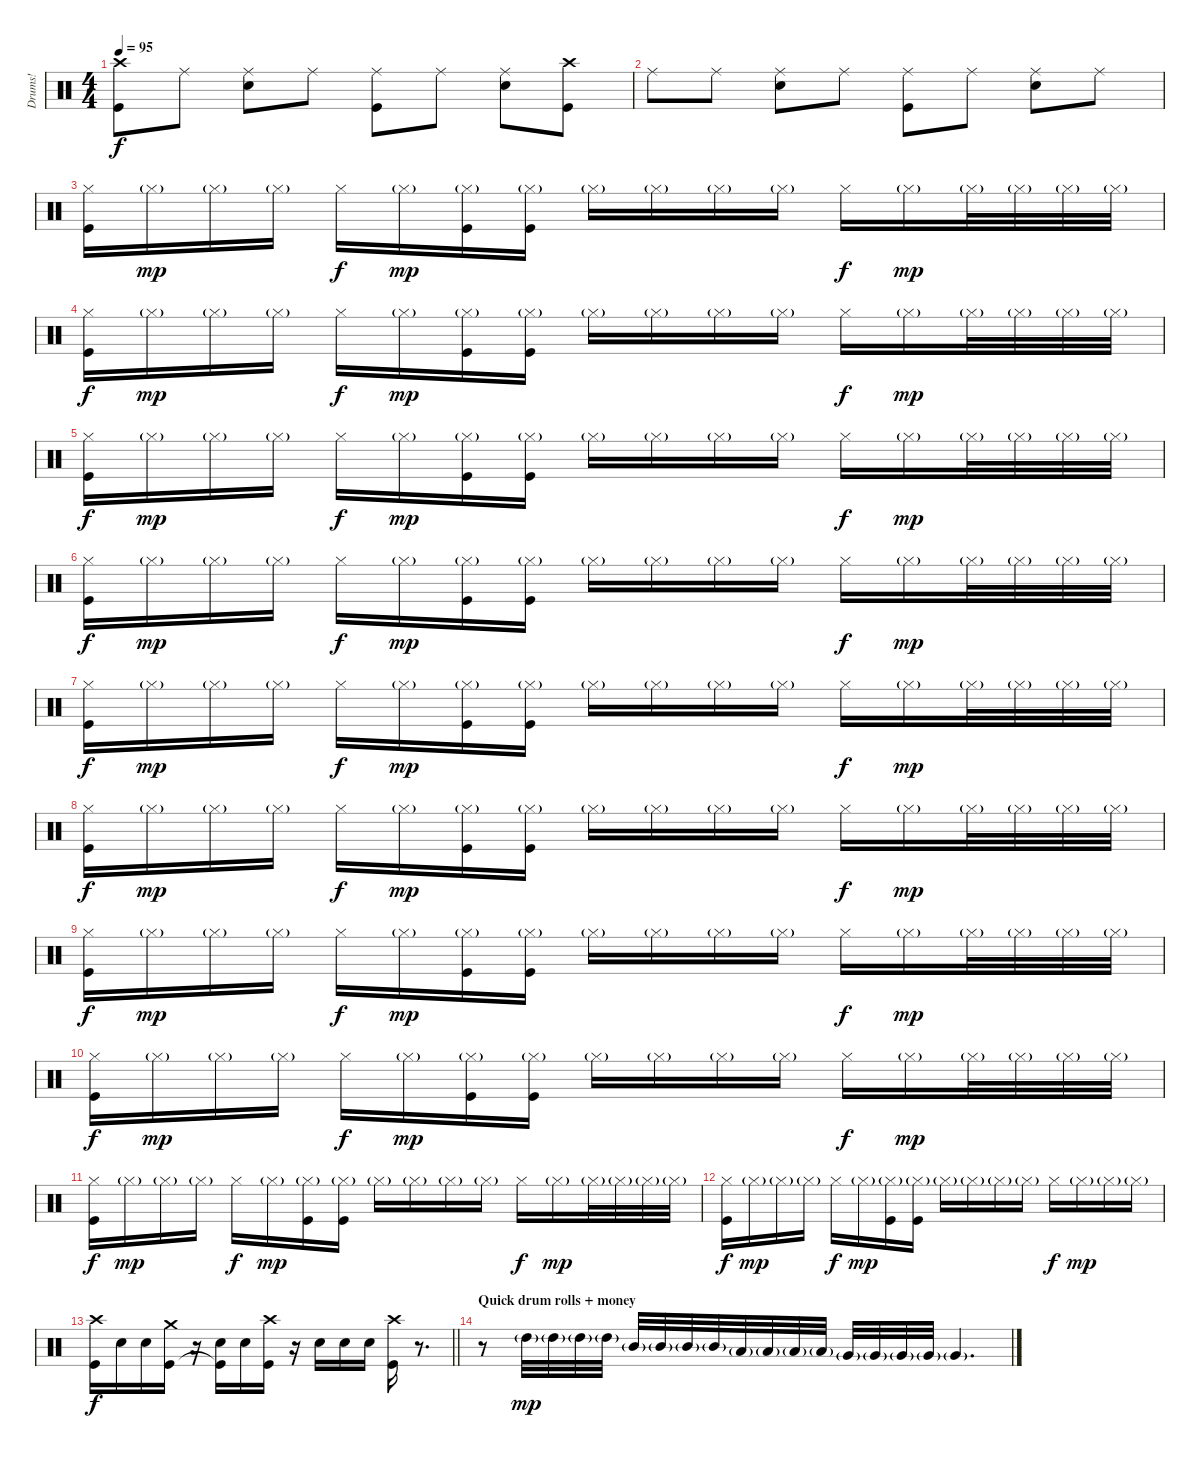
\track ("Drums!" "Drums!") {instrument percussion}
\staff {score}
\articulation defaults
\ts (4 4)
\tempo 95
\clef neutral
\ks c
("Crash high (hit)" "Kick (hit)").8{dy f} "Ride (middle)".8 ("Ride (middle)" "Electric Snare (hit)").8 "Ride (middle)".8 ("Ride (middle)" "Kick (hit)").8 "Ride (middle)".8 ("Ride (middle)" "Electric Snare (hit)").8 ("Crash high (hit)" "Kick (hit)").8 |
"Ride (middle)".8 "Ride (middle)".8 ("Ride (middle)" "Electric Snare (hit)").8 "Ride (middle)".8 ("Ride (middle)" "Kick (hit)").8 "Ride (middle)".8 ("Ride (middle)" "Electric Snare (hit)").8 "Ride (middle)".8 |
("Hi-Hat (closed)" "Kick (hit)").16 "Hi-Hat (closed)"{g}.16{dy mp} "Hi-Hat (closed)"{g}.16 "Hi-Hat (closed)"{g}.16 "Hi-Hat (closed)".16{dy f} "Hi-Hat (closed)"{g}.16{dy mp} ("Hi-Hat (closed)"{g} "Kick (hit)").16 ("Hi-Hat (closed)"{g} "Kick (hit)").16 "Hi-Hat (closed)"{g}.16 "Hi-Hat (closed)"{g}.16 "Hi-Hat (closed)"{g}.16 "Hi-Hat (closed)"{g}.16 "Hi-Hat (closed)".16{dy f} "Hi-Hat (closed)"{g}.16{dy mp} "Hi-Hat (closed)"{g}.32 "Hi-Hat (closed)"{g}.32 "Hi-Hat (closed)"{g}.32 "Hi-Hat (closed)"{g}.32 |
("Hi-Hat (closed)" "Kick (hit)").16{dy f} "Hi-Hat (closed)"{g}.16{dy mp} "Hi-Hat (closed)"{g}.16 "Hi-Hat (closed)"{g}.16 "Hi-Hat (closed)".16{dy f} "Hi-Hat (closed)"{g}.16{dy mp} ("Hi-Hat (closed)"{g} "Kick (hit)").16 ("Hi-Hat (closed)"{g} "Kick (hit)").16 "Hi-Hat (closed)"{g}.16 "Hi-Hat (closed)"{g}.16 "Hi-Hat (closed)"{g}.16 "Hi-Hat (closed)"{g}.16 "Hi-Hat (closed)".16{dy f} "Hi-Hat (closed)"{g}.16{dy mp} "Hi-Hat (closed)"{g}.32 "Hi-Hat (closed)"{g}.32 "Hi-Hat (closed)"{g}.32 "Hi-Hat (closed)"{g}.32 |
("Hi-Hat (closed)" "Kick (hit)").16{dy f} "Hi-Hat (closed)"{g}.16{dy mp} "Hi-Hat (closed)"{g}.16 "Hi-Hat (closed)"{g}.16 "Hi-Hat (closed)".16{dy f} "Hi-Hat (closed)"{g}.16{dy mp} ("Hi-Hat (closed)"{g} "Kick (hit)").16 ("Hi-Hat (closed)"{g} "Kick (hit)").16 "Hi-Hat (closed)"{g}.16 "Hi-Hat (closed)"{g}.16 "Hi-Hat (closed)"{g}.16 "Hi-Hat (closed)"{g}.16 "Hi-Hat (closed)".16{dy f} "Hi-Hat (closed)"{g}.16{dy mp} "Hi-Hat (closed)"{g}.32 "Hi-Hat (closed)"{g}.32 "Hi-Hat (closed)"{g}.32 "Hi-Hat (closed)"{g}.32 |
("Hi-Hat (closed)" "Kick (hit)").16{dy f} "Hi-Hat (closed)"{g}.16{dy mp} "Hi-Hat (closed)"{g}.16 "Hi-Hat (closed)"{g}.16 "Hi-Hat (closed)".16{dy f} "Hi-Hat (closed)"{g}.16{dy mp} ("Hi-Hat (closed)"{g} "Kick (hit)").16 ("Hi-Hat (closed)"{g} "Kick (hit)").16 "Hi-Hat (closed)"{g}.16 "Hi-Hat (closed)"{g}.16 "Hi-Hat (closed)"{g}.16 "Hi-Hat (closed)"{g}.16 "Hi-Hat (closed)".16{dy f} "Hi-Hat (closed)"{g}.16{dy mp} "Hi-Hat (closed)"{g}.32 "Hi-Hat (closed)"{g}.32 "Hi-Hat (closed)"{g}.32 "Hi-Hat (closed)"{g}.32 |
("Hi-Hat (closed)" "Kick (hit)").16{dy f} "Hi-Hat (closed)"{g}.16{dy mp} "Hi-Hat (closed)"{g}.16 "Hi-Hat (closed)"{g}.16 "Hi-Hat (closed)".16{dy f} "Hi-Hat (closed)"{g}.16{dy mp} ("Hi-Hat (closed)"{g} "Kick (hit)").16 ("Hi-Hat (closed)"{g} "Kick (hit)").16 "Hi-Hat (closed)"{g}.16 "Hi-Hat (closed)"{g}.16 "Hi-Hat (closed)"{g}.16 "Hi-Hat (closed)"{g}.16 "Hi-Hat (closed)".16{dy f} "Hi-Hat (closed)"{g}.16{dy mp} "Hi-Hat (closed)"{g}.32 "Hi-Hat (closed)"{g}.32 "Hi-Hat (closed)"{g}.32 "Hi-Hat (closed)"{g}.32 |
("Hi-Hat (closed)" "Kick (hit)").16{dy f} "Hi-Hat (closed)"{g}.16{dy mp} "Hi-Hat (closed)"{g}.16 "Hi-Hat (closed)"{g}.16 "Hi-Hat (closed)".16{dy f} "Hi-Hat (closed)"{g}.16{dy mp} ("Hi-Hat (closed)"{g} "Kick (hit)").16 ("Hi-Hat (closed)"{g} "Kick (hit)").16 "Hi-Hat (closed)"{g}.16 "Hi-Hat (closed)"{g}.16 "Hi-Hat (closed)"{g}.16 "Hi-Hat (closed)"{g}.16 "Hi-Hat (closed)".16{dy f} "Hi-Hat (closed)"{g}.16{dy mp} "Hi-Hat (closed)"{g}.32 "Hi-Hat (closed)"{g}.32 "Hi-Hat (closed)"{g}.32 "Hi-Hat (closed)"{g}.32 |
("Hi-Hat (closed)" "Kick (hit)").16{dy f} "Hi-Hat (closed)"{g}.16{dy mp} "Hi-Hat (closed)"{g}.16 "Hi-Hat (closed)"{g}.16 "Hi-Hat (closed)".16{dy f} "Hi-Hat (closed)"{g}.16{dy mp} ("Hi-Hat (closed)"{g} "Kick (hit)").16 ("Hi-Hat (closed)"{g} "Kick (hit)").16 "Hi-Hat (closed)"{g}.16 "Hi-Hat (closed)"{g}.16 "Hi-Hat (closed)"{g}.16 "Hi-Hat (closed)"{g}.16 "Hi-Hat (closed)".16{dy f} "Hi-Hat (closed)"{g}.16{dy mp} "Hi-Hat (closed)"{g}.32 "Hi-Hat (closed)"{g}.32 "Hi-Hat (closed)"{g}.32 "Hi-Hat (closed)"{g}.32 |
("Hi-Hat (closed)" "Kick (hit)").16{dy f} "Hi-Hat (closed)"{g}.16{dy mp} "Hi-Hat (closed)"{g}.16 "Hi-Hat (closed)"{g}.16 "Hi-Hat (closed)".16{dy f} "Hi-Hat (closed)"{g}.16{dy mp} ("Hi-Hat (closed)"{g} "Kick (hit)").16 ("Hi-Hat (closed)"{g} "Kick (hit)").16 "Hi-Hat (closed)"{g}.16 "Hi-Hat (closed)"{g}.16 "Hi-Hat (closed)"{g}.16 "Hi-Hat (closed)"{g}.16 "Hi-Hat (closed)".16{dy f} "Hi-Hat (closed)"{g}.16{dy mp} "Hi-Hat (closed)"{g}.32 "Hi-Hat (closed)"{g}.32 "Hi-Hat (closed)"{g}.32 "Hi-Hat (closed)"{g}.32 |
("Hi-Hat (closed)" "Kick (hit)").16{dy f} "Hi-Hat (closed)"{g}.16{dy mp} "Hi-Hat (closed)"{g}.16 "Hi-Hat (closed)"{g}.16 "Hi-Hat (closed)".16{dy f} "Hi-Hat (closed)"{g}.16{dy mp} ("Hi-Hat (closed)"{g} "Kick (hit)").16 ("Hi-Hat (closed)"{g} "Kick (hit)").16 "Hi-Hat (closed)"{g}.16 "Hi-Hat (closed)"{g}.16 "Hi-Hat (closed)"{g}.16 "Hi-Hat (closed)"{g}.16 "Hi-Hat (closed)".16{dy f} "Hi-Hat (closed)"{g}.16{dy mp} "Hi-Hat (closed)"{g}.32 "Hi-Hat (closed)"{g}.32 "Hi-Hat (closed)"{g}.32 "Hi-Hat (closed)"{g}.32 |
("Hi-Hat (closed)" "Kick (hit)").16{dy f} "Hi-Hat (closed)"{g}.16{dy mp} "Hi-Hat (closed)"{g}.16 "Hi-Hat (closed)"{g}.16 "Hi-Hat (closed)".16{dy f} "Hi-Hat (closed)"{g}.16{dy mp} ("Hi-Hat (closed)"{g} "Kick (hit)").16 ("Hi-Hat (closed)"{g} "Kick (hit)").16 "Hi-Hat (closed)"{g}.16 "Hi-Hat (closed)"{g}.16 "Hi-Hat (closed)"{g}.16 "Hi-Hat (closed)"{g}.16 "Hi-Hat (closed)".16{dy f} "Hi-Hat (closed)"{g}.16{dy mp} "Hi-Hat (closed)"{g}.16 "Hi-Hat (closed)"{g}.16 |
\barLineRight lightlight
("Crash high (hit)" "Kick (hit)").16{dy f} "Electric Snare (hit)".16 "Electric Snare (hit)".16 ("Crash medium (hit)" "Kick (hit)").16 r.16 ("Electric Snare (hit)" "Kick (hit)"{t}).16 "Electric Snare (hit)".16 ("Crash high (hit)" "Kick (hit)").16 r.16 "Electric Snare (hit)".16 "Electric Snare (hit)".16 "Electric Snare (hit)".16 ("Crash high (hit)" "Kick (hit)").16 r.8{d} |
\section ("" "Quick drum rolls + money")
r.8 "High Tom (hit)"{g}.32{dy mp} "High Tom (hit)"{g}.32 "High Tom (hit)"{g}.32 "High Tom (hit)"{g}.32 "Mid Tom (hit)"{g}.32 "Mid Tom (hit)"{g}.32 "Mid Tom (hit)"{g}.32 "Mid Tom (hit)"{g}.32 "Low Tom (hit)"{g}.32 "Low Tom (hit)"{g}.32 "Low Tom (hit)"{g}.32 "Low Tom (hit)"{g}.32 "Very Low Tom (hit)"{g}.32 "Very Low Tom (hit)"{g}.32 "Very Low Tom (hit)"{g}.32 "Very Low Tom (hit)"{g}.32 "Very Low Tom (hit)"{g}.4{d}
